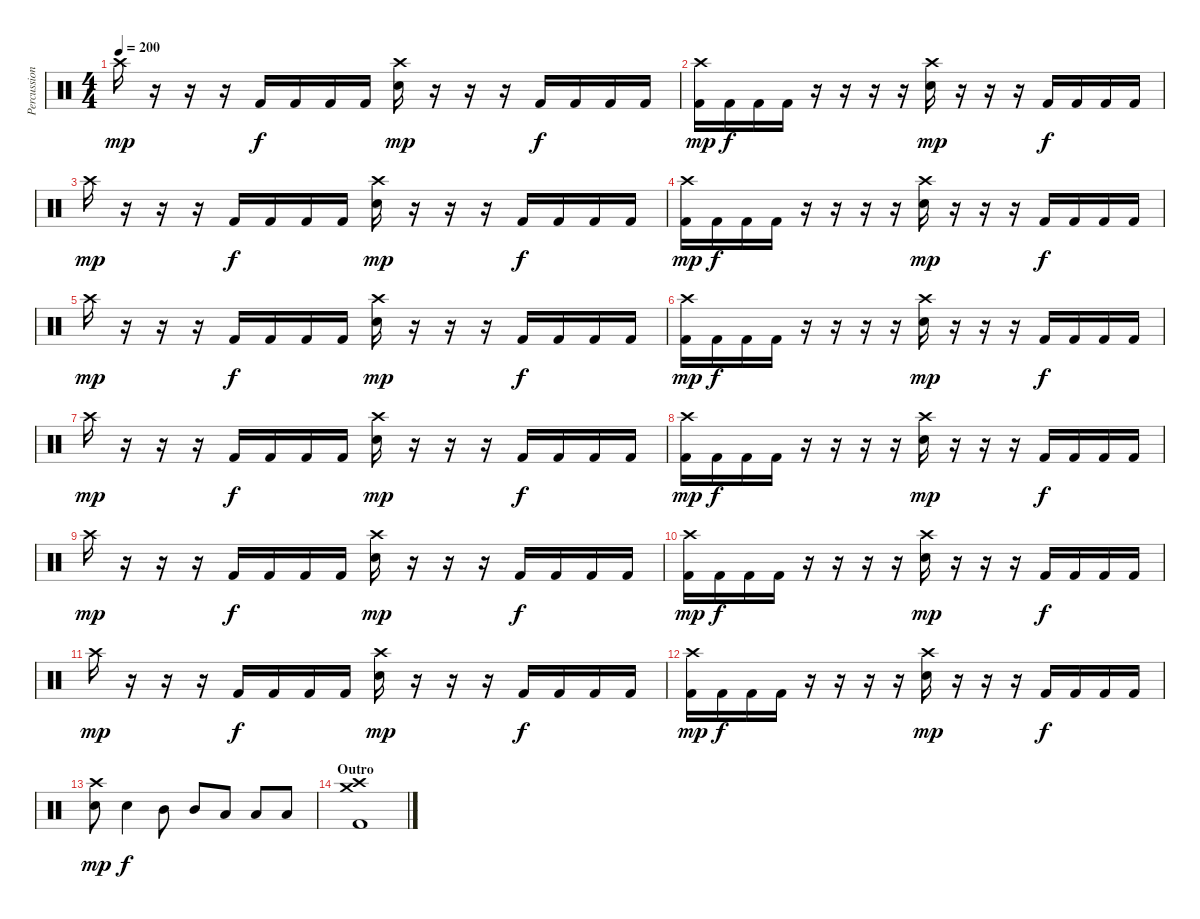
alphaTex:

\track ("Percussions ( Brylle )" "Percussion") {instrument percussion}
\staff {score}
\articulation defaults
\ts (4 4)
\tempo 200
\clef neutral
\ks c "Crash high (hit)".16{dy mp}
r.16 r.16 r.16 "Kick (hit) 2".16{dy f} "Kick (hit) 2".16 "Kick (hit) 2".16 "Kick (hit) 2".16 ("Crash high (hit)" "Electric Snare (hit)").16{dy mp} r.16 r.16 r.16 "Kick (hit) 2".16{dy f} "Kick (hit) 2".16 "Kick (hit) 2".16 "Kick (hit) 2".16 |
("Crash high (hit)" "Kick (hit) 2").16{dy mp} "Kick (hit) 2".16{dy f} "Kick (hit) 2".16 "Kick (hit) 2".16 r.16 r.16 r.16 r.16 ("Crash high (hit)" "Electric Snare (hit)").16{dy mp} r.16 r.16 r.16 "Kick (hit) 2".16{dy f} "Kick (hit) 2".16 "Kick (hit) 2".16 "Kick (hit) 2".16 |
"Crash high (hit)".16{dy mp} r.16 r.16 r.16 "Kick (hit) 2".16{dy f} "Kick (hit) 2".16 "Kick (hit) 2".16 "Kick (hit) 2".16 ("Crash high (hit)" "Electric Snare (hit)").16{dy mp} r.16 r.16 r.16 "Kick (hit) 2".16{dy f} "Kick (hit) 2".16 "Kick (hit) 2".16 "Kick (hit) 2".16 |
("Crash high (hit)" "Kick (hit) 2").16{dy mp} "Kick (hit) 2".16{dy f} "Kick (hit) 2".16 "Kick (hit) 2".16 r.16 r.16 r.16 r.16 ("Crash high (hit)" "Electric Snare (hit)").16{dy mp} r.16 r.16 r.16 "Kick (hit) 2".16{dy f} "Kick (hit) 2".16 "Kick (hit) 2".16 "Kick (hit) 2".16 |
"Crash high (hit)".16{dy mp} r.16 r.16 r.16 "Kick (hit) 2".16{dy f} "Kick (hit) 2".16 "Kick (hit) 2".16 "Kick (hit) 2".16 ("Crash high (hit)" "Electric Snare (hit)").16{dy mp} r.16 r.16 r.16 "Kick (hit) 2".16{dy f} "Kick (hit) 2".16 "Kick (hit) 2".16 "Kick (hit) 2".16 |
("Crash high (hit)" "Kick (hit) 2").16{dy mp} "Kick (hit) 2".16{dy f} "Kick (hit) 2".16 "Kick (hit) 2".16 r.16 r.16 r.16 r.16 ("Crash high (hit)" "Electric Snare (hit)").16{dy mp} r.16 r.16 r.16 "Kick (hit) 2".16{dy f} "Kick (hit) 2".16 "Kick (hit) 2".16 "Kick (hit) 2".16 |
"Crash high (hit)".16{dy mp} r.16 r.16 r.16 "Kick (hit) 2".16{dy f} "Kick (hit) 2".16 "Kick (hit) 2".16 "Kick (hit) 2".16 ("Crash high (hit)" "Electric Snare (hit)").16{dy mp} r.16 r.16 r.16 "Kick (hit) 2".16{dy f} "Kick (hit) 2".16 "Kick (hit) 2".16 "Kick (hit) 2".16 |
("Crash high (hit)" "Kick (hit) 2").16{dy mp} "Kick (hit) 2".16{dy f} "Kick (hit) 2".16 "Kick (hit) 2".16 r.16 r.16 r.16 r.16 ("Crash high (hit)" "Electric Snare (hit)").16{dy mp} r.16 r.16 r.16 "Kick (hit) 2".16{dy f} "Kick (hit) 2".16 "Kick (hit) 2".16 "Kick (hit) 2".16 |
"Crash high (hit)".16{dy mp} r.16 r.16 r.16 "Kick (hit) 2".16{dy f} "Kick (hit) 2".16 "Kick (hit) 2".16 "Kick (hit) 2".16 ("Crash high (hit)" "Electric Snare (hit)").16{dy mp} r.16 r.16 r.16 "Kick (hit) 2".16{dy f} "Kick (hit) 2".16 "Kick (hit) 2".16 "Kick (hit) 2".16 |
("Crash high (hit)" "Kick (hit) 2").16{dy mp} "Kick (hit) 2".16{dy f} "Kick (hit) 2".16 "Kick (hit) 2".16 r.16 r.16 r.16 r.16 ("Crash high (hit)" "Electric Snare (hit)").16{dy mp} r.16 r.16 r.16 "Kick (hit) 2".16{dy f} "Kick (hit) 2".16 "Kick (hit) 2".16 "Kick (hit) 2".16 |
"Crash high (hit)".16{dy mp} r.16 r.16 r.16 "Kick (hit) 2".16{dy f} "Kick (hit) 2".16 "Kick (hit) 2".16 "Kick (hit) 2".16 ("Crash high (hit)" "Electric Snare (hit)").16{dy mp} r.16 r.16 r.16 "Kick (hit) 2".16{dy f} "Kick (hit) 2".16 "Kick (hit) 2".16 "Kick (hit) 2".16 |
("Crash high (hit)" "Kick (hit) 2").16{dy mp} "Kick (hit) 2".16{dy f} "Kick (hit) 2".16 "Kick (hit) 2".16 r.16 r.16 r.16 r.16 ("Crash high (hit)" "Electric Snare (hit)").16{dy mp} r.16 r.16 r.16 "Kick (hit) 2".16{dy f} "Kick (hit) 2".16 "Kick (hit) 2".16 "Kick (hit) 2".16 |
("Crash high (hit)" "Electric Snare (hit)").8{dy mp} "Electric Snare (hit)".4{dy f} "Mid Tom (hit)".8 "Mid Tom (hit)".8 "Low Tom (hit)".8 "Low Tom (hit)".8 "Low Tom (hit)".8 |
\section ("" "Outro")
("Crash medium (hit)" "Crash high (hit)" "Kick (hit) 2").1
